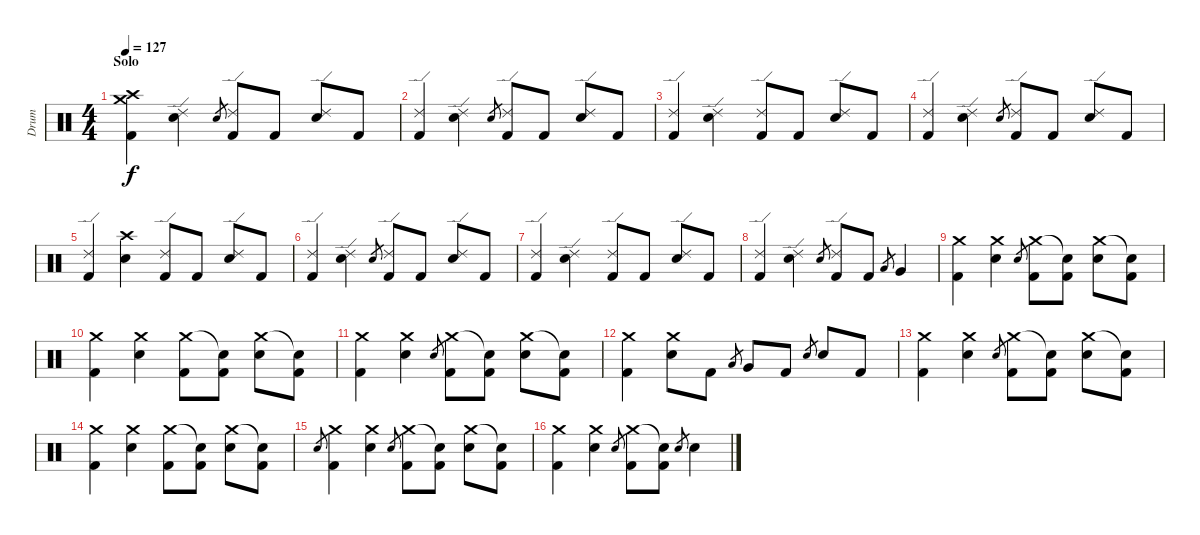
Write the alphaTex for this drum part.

\track ("Drum" "Drum") {instrument percussion}
\staff {score}
\articulation defaults
\ts (4 4)
\section ("" "Solo")
\tempo 127
\clef neutral
\ks c
("Kick (hit) 2" "Crash high (hit)" "Crash medium (hit)").4{dy f} ("Ride (edge) 2" "Electric Snare (hit)").4 "Electric Snare (hit)".8{gr} ("Ride (edge) 2" "Kick (hit) 2").8 "Kick (hit) 2".8 ("Ride (edge) 2" "Electric Snare (hit)").8 "Kick (hit) 2".8 |
("Ride (edge) 2" "Kick (hit) 2").4 ("Ride (edge) 2" "Electric Snare (hit)").4 "Electric Snare (hit)".8{gr} ("Ride (edge) 2" "Kick (hit) 2").8 "Kick (hit) 2".8 ("Ride (edge) 2" "Electric Snare (hit)").8 "Kick (hit) 2".8 |
("Ride (edge) 2" "Kick (hit) 2").4 ("Ride (edge) 2" "Electric Snare (hit)").4 ("Ride (edge) 2" "Kick (hit) 2").8 "Kick (hit) 2".8 ("Ride (edge) 2" "Electric Snare (hit)").8 "Kick (hit) 2".8 |
("Ride (edge) 2" "Kick (hit) 2").4 ("Ride (edge) 2" "Electric Snare (hit)").4 "Electric Snare (hit)".8{gr} ("Ride (edge) 2" "Kick (hit) 2").8 "Kick (hit) 2".8 ("Ride (edge) 2" "Electric Snare (hit)").8 "Kick (hit) 2".8 |
("Ride (edge) 2" "Kick (hit) 2").4 ("Electric Snare (hit)" "Crash high (hit)").4 ("Ride (edge) 2" "Kick (hit) 2").8 "Kick (hit) 2".8 ("Ride (edge) 2" "Electric Snare (hit)").8 "Kick (hit) 2".8 |
("Ride (edge) 2" "Kick (hit) 2").4 ("Ride (edge) 2" "Electric Snare (hit)").4 "Electric Snare (hit)".8{gr} ("Ride (edge) 2" "Kick (hit) 2").8 "Kick (hit) 2".8 ("Ride (edge) 2" "Electric Snare (hit)").8 "Kick (hit) 2".8 |
("Ride (edge) 2" "Kick (hit) 2").4 ("Ride (edge) 2" "Electric Snare (hit)").4 ("Ride (edge) 2" "Kick (hit) 2").8 "Kick (hit) 2".8 ("Ride (edge) 2" "Electric Snare (hit)").8 "Kick (hit) 2".8 |
("Ride (edge) 2" "Kick (hit) 2").4 ("Ride (edge) 2" "Electric Snare (hit)").4 "Electric Snare (hit)".8{gr} ("Ride (edge) 2" "Kick (hit) 2").8 "Kick (hit) 2".8 "Low Floor Tom (hit)".8{gr} "Very Low Tom (hit)".4 |
\section ("" "")
("Kick (hit) 2" "Crash medium (hit)").4 ("Electric Snare (hit)" "Crash medium (hit)").4 "Electric Snare (hit)".8{gr} ("Kick (hit) 2" "Crash medium (hit)").8 ("Kick (hit) 2" "Snare (hit)"{t}).8 ("Electric Snare (hit)" "Crash medium (hit)").8 ("Kick (hit) 2" "Snare (hit)"{t}).8 |
("Kick (hit) 2" "Crash medium (hit)").4 ("Electric Snare (hit)" "Crash medium (hit)").4 ("Kick (hit) 2" "Crash medium (hit)").8 ("Kick (hit) 2" "Snare (hit)"{t}).8 ("Electric Snare (hit)" "Crash medium (hit)").8 ("Kick (hit) 2" "Snare (hit)"{t}).8 |
("Kick (hit) 2" "Crash medium (hit)").4 ("Electric Snare (hit)" "Crash medium (hit)").4 "Electric Snare (hit)".8{gr} ("Kick (hit) 2" "Crash medium (hit)").8 ("Kick (hit) 2" "Snare (hit)"{t}).8 ("Electric Snare (hit)" "Crash medium (hit)").8 ("Kick (hit) 2" "Snare (hit)"{t}).8 |
("Kick (hit) 2" "Crash medium (hit)").4 ("Electric Snare (hit)" "Crash medium (hit)").8 "Kick (hit) 2".8 "Low Floor Tom (hit)".8{gr} "Very Low Tom (hit)".8 "Kick (hit) 2".8 "Electric Snare (hit)".8{gr} "Electric Snare (hit)".8 "Kick (hit) 2".8 |
("Kick (hit) 2" "Crash medium (hit)").4 ("Electric Snare (hit)" "Crash medium (hit)").4 "Electric Snare (hit)".8{gr} ("Kick (hit) 2" "Crash medium (hit)").8 ("Kick (hit) 2" "Snare (hit)"{t}).8 ("Electric Snare (hit)" "Crash medium (hit)").8 ("Kick (hit) 2" "Snare (hit)"{t}).8 |
("Kick (hit) 2" "Crash medium (hit)").4 ("Electric Snare (hit)" "Crash medium (hit)").4 ("Kick (hit) 2" "Crash medium (hit)").8 ("Kick (hit) 2" "Snare (hit)"{t}).8 ("Electric Snare (hit)" "Crash medium (hit)").8 ("Kick (hit) 2" "Snare (hit)"{t}).8 |
"Electric Snare (hit)".8{gr} ("Kick (hit) 2" "Crash medium (hit)").4 ("Electric Snare (hit)" "Crash medium (hit)").4 "Electric Snare (hit)".8{gr} ("Kick (hit) 2" "Crash medium (hit)").8 ("Kick (hit) 2" "Snare (hit)"{t}).8 ("Electric Snare (hit)" "Crash medium (hit)").8 ("Kick (hit) 2" "Snare (hit)"{t}).8 |
("Kick (hit) 2" "Crash medium (hit)").4 ("Electric Snare (hit)" "Crash medium (hit)").4 "Electric Snare (hit)".8{gr} ("Kick (hit) 2" "Crash medium (hit)").8 ("Kick (hit) 2" "Snare (hit)"{t}).8 "Electric Snare (hit)".8{gr} "Electric Snare (hit)".4
